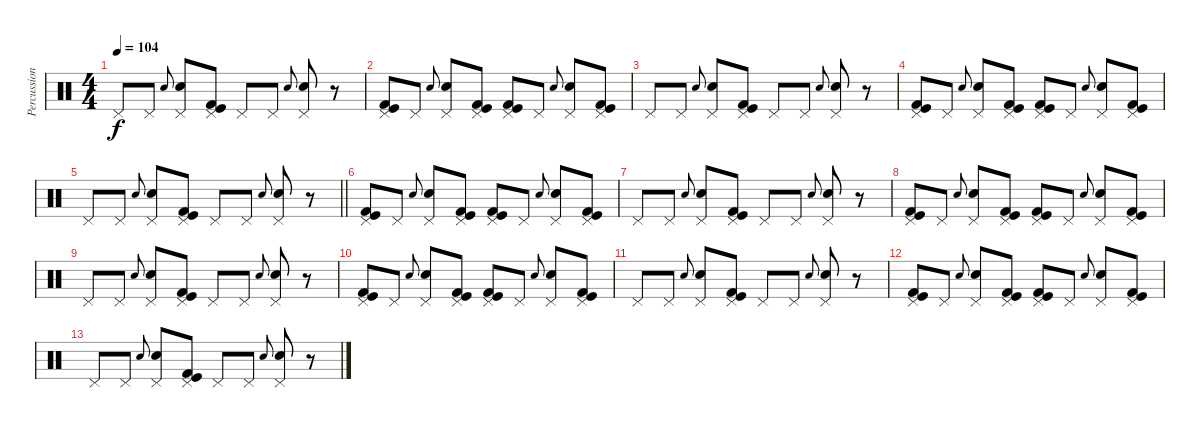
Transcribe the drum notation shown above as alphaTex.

\track ("Percussion" "Percussion") {instrument percussion}
\staff {score}
\articulation defaults
\ts (4 4)
\tempo 104
\clef neutral
\ks c "Pedal Hi-Hat (hit)".8{dy f} "Pedal Hi-Hat (hit)".8 "Electric Snare (hit)".8{gr onbeat}
("Pedal Hi-Hat (hit)" "Electric Snare (hit)").8 ("Pedal Hi-Hat (hit)" "Kick (hit)" "Kick (hit) 2").8 "Pedal Hi-Hat (hit)".8 "Pedal Hi-Hat (hit)".8 "Electric Snare (hit)".8{gr onbeat} ("Pedal Hi-Hat (hit)" "Electric Snare (hit)").8 r.8 |
("Pedal Hi-Hat (hit)" "Kick (hit)" "Kick (hit) 2").8 "Pedal Hi-Hat (hit)".8 "Electric Snare (hit)".8{gr onbeat} ("Pedal Hi-Hat (hit)" "Electric Snare (hit)").8 ("Pedal Hi-Hat (hit)" "Kick (hit)" "Kick (hit) 2").8 ("Pedal Hi-Hat (hit)" "Kick (hit)" "Kick (hit) 2").8 "Pedal Hi-Hat (hit)".8 "Electric Snare (hit)".8{gr onbeat} ("Pedal Hi-Hat (hit)" "Electric Snare (hit)").8 ("Pedal Hi-Hat (hit)" "Kick (hit)" "Kick (hit) 2").8 |
"Pedal Hi-Hat (hit)".8 "Pedal Hi-Hat (hit)".8 "Electric Snare (hit)".8{gr onbeat} ("Pedal Hi-Hat (hit)" "Electric Snare (hit)").8 ("Pedal Hi-Hat (hit)" "Kick (hit)" "Kick (hit) 2").8 "Pedal Hi-Hat (hit)".8 "Pedal Hi-Hat (hit)".8 "Electric Snare (hit)".8{gr onbeat} ("Pedal Hi-Hat (hit)" "Electric Snare (hit)").8 r.8 |
("Pedal Hi-Hat (hit)" "Kick (hit)" "Kick (hit) 2").8 "Pedal Hi-Hat (hit)".8 "Electric Snare (hit)".8{gr onbeat} ("Pedal Hi-Hat (hit)" "Electric Snare (hit)").8 ("Pedal Hi-Hat (hit)" "Kick (hit)" "Kick (hit) 2").8 ("Pedal Hi-Hat (hit)" "Kick (hit)" "Kick (hit) 2").8 "Pedal Hi-Hat (hit)".8 "Electric Snare (hit)".8{gr onbeat} ("Pedal Hi-Hat (hit)" "Electric Snare (hit)").8 ("Pedal Hi-Hat (hit)" "Kick (hit)" "Kick (hit) 2").8 |
\barLineRight lightlight "Pedal Hi-Hat (hit)".8 "Pedal Hi-Hat (hit)".8 "Electric Snare (hit)".8{gr onbeat}
("Pedal Hi-Hat (hit)" "Electric Snare (hit)").8 ("Pedal Hi-Hat (hit)" "Kick (hit)" "Kick (hit) 2").8 "Pedal Hi-Hat (hit)".8 "Pedal Hi-Hat (hit)".8 "Electric Snare (hit)".8{gr onbeat} ("Pedal Hi-Hat (hit)" "Electric Snare (hit)").8 r.8 |
\section ("" "")
("Pedal Hi-Hat (hit)" "Kick (hit)" "Kick (hit) 2").8 "Pedal Hi-Hat (hit)".8 "Electric Snare (hit)".8{gr onbeat} ("Pedal Hi-Hat (hit)" "Electric Snare (hit)").8 ("Pedal Hi-Hat (hit)" "Kick (hit)" "Kick (hit) 2").8 ("Pedal Hi-Hat (hit)" "Kick (hit)" "Kick (hit) 2").8 "Pedal Hi-Hat (hit)".8 "Electric Snare (hit)".8{gr onbeat} ("Pedal Hi-Hat (hit)" "Electric Snare (hit)").8 ("Pedal Hi-Hat (hit)" "Kick (hit)" "Kick (hit) 2").8 |
"Pedal Hi-Hat (hit)".8 "Pedal Hi-Hat (hit)".8 "Electric Snare (hit)".8{gr onbeat} ("Pedal Hi-Hat (hit)" "Electric Snare (hit)").8 ("Pedal Hi-Hat (hit)" "Kick (hit)" "Kick (hit) 2").8 "Pedal Hi-Hat (hit)".8 "Pedal Hi-Hat (hit)".8 "Electric Snare (hit)".8{gr onbeat} ("Pedal Hi-Hat (hit)" "Electric Snare (hit)").8 r.8 |
("Pedal Hi-Hat (hit)" "Kick (hit)" "Kick (hit) 2").8 "Pedal Hi-Hat (hit)".8 "Electric Snare (hit)".8{gr onbeat} ("Pedal Hi-Hat (hit)" "Electric Snare (hit)").8 ("Pedal Hi-Hat (hit)" "Kick (hit)" "Kick (hit) 2").8 ("Pedal Hi-Hat (hit)" "Kick (hit)" "Kick (hit) 2").8 "Pedal Hi-Hat (hit)".8 "Electric Snare (hit)".8{gr onbeat} ("Pedal Hi-Hat (hit)" "Electric Snare (hit)").8 ("Pedal Hi-Hat (hit)" "Kick (hit)" "Kick (hit) 2").8 |
"Pedal Hi-Hat (hit)".8 "Pedal Hi-Hat (hit)".8 "Electric Snare (hit)".8{gr onbeat} ("Pedal Hi-Hat (hit)" "Electric Snare (hit)").8 ("Pedal Hi-Hat (hit)" "Kick (hit)" "Kick (hit) 2").8 "Pedal Hi-Hat (hit)".8 "Pedal Hi-Hat (hit)".8 "Electric Snare (hit)".8{gr onbeat} ("Pedal Hi-Hat (hit)" "Electric Snare (hit)").8 r.8 |
("Pedal Hi-Hat (hit)" "Kick (hit)" "Kick (hit) 2").8{volume 0} "Pedal Hi-Hat (hit)".8 "Electric Snare (hit)".8{gr onbeat} ("Pedal Hi-Hat (hit)" "Electric Snare (hit)").8 ("Pedal Hi-Hat (hit)" "Kick (hit)" "Kick (hit) 2").8 ("Pedal Hi-Hat (hit)" "Kick (hit)" "Kick (hit) 2").8 "Pedal Hi-Hat (hit)".8 "Electric Snare (hit)".8{gr onbeat} ("Pedal Hi-Hat (hit)" "Electric Snare (hit)").8 ("Pedal Hi-Hat (hit)" "Kick (hit)" "Kick (hit) 2").8 |
"Pedal Hi-Hat (hit)".8 "Pedal Hi-Hat (hit)".8 "Electric Snare (hit)".8{gr onbeat} ("Pedal Hi-Hat (hit)" "Electric Snare (hit)").8 ("Pedal Hi-Hat (hit)" "Kick (hit)" "Kick (hit) 2").8 "Pedal Hi-Hat (hit)".8 "Pedal Hi-Hat (hit)".8 "Electric Snare (hit)".8{gr onbeat} ("Pedal Hi-Hat (hit)" "Electric Snare (hit)").8 r.8 |
("Pedal Hi-Hat (hit)" "Kick (hit)" "Kick (hit) 2").8 "Pedal Hi-Hat (hit)".8 "Electric Snare (hit)".8{gr onbeat} ("Pedal Hi-Hat (hit)" "Electric Snare (hit)").8 ("Pedal Hi-Hat (hit)" "Kick (hit)" "Kick (hit) 2").8 ("Pedal Hi-Hat (hit)" "Kick (hit)" "Kick (hit) 2").8 "Pedal Hi-Hat (hit)".8 "Electric Snare (hit)".8{gr onbeat} ("Pedal Hi-Hat (hit)" "Electric Snare (hit)").8 ("Pedal Hi-Hat (hit)" "Kick (hit)" "Kick (hit) 2").8 |
"Pedal Hi-Hat (hit)".8 "Pedal Hi-Hat (hit)".8 "Electric Snare (hit)".8{gr onbeat} ("Pedal Hi-Hat (hit)" "Electric Snare (hit)").8 ("Pedal Hi-Hat (hit)" "Kick (hit)" "Kick (hit) 2").8 "Pedal Hi-Hat (hit)".8 "Pedal Hi-Hat (hit)".8 "Electric Snare (hit)".8{gr onbeat} ("Pedal Hi-Hat (hit)" "Electric Snare (hit)").8 r.8
